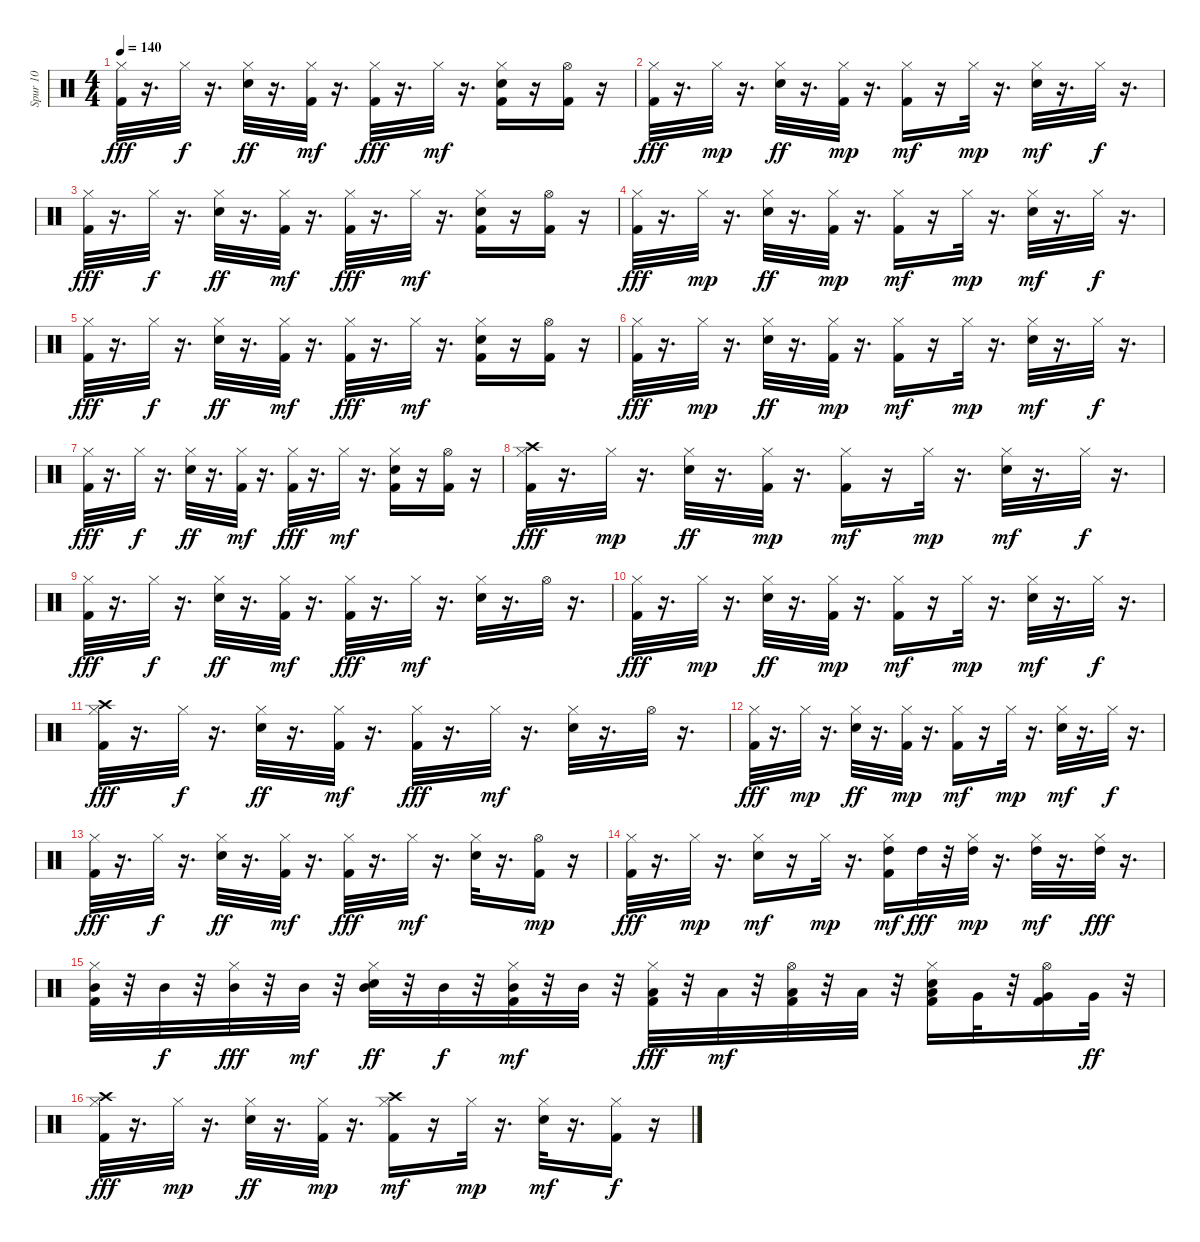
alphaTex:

\track ("Spur 10" "Spur 10") {instrument percussion}
\staff {score}
\articulation defaults
\ts (4 4)
\tempo 140
\clef neutral
\ks c
("Hi-Hat (closed)" "Kick (hit) 2").32{dy fff} r.16{d} "Hi-Hat (closed)".32{dy f} r.16{d} ("Hi-Hat (closed)" "Snare (hit) 2").32{dy ff} r.16{d} ("Kick (hit) 2" "Hi-Hat (closed)").32{dy mf} r.16{d} ("Hi-Hat (closed)" "Kick (hit) 2").32{dy fff} r.16{d} "Hi-Hat (closed)".32{dy mf} r.16{d} ("Kick (hit) 2" "Snare (hit) 2" "Hi-Hat (closed)").16 r.16 ("Kick (hit) 2" "Hi-Hat (open)").16 r.16 |
("Hi-Hat (closed)" "Kick (hit) 2").32{dy fff} r.16{d} "Hi-Hat (closed)".32{dy mp} r.16{d} ("Hi-Hat (closed)" "Snare (hit) 2").32{dy ff} r.16{d} ("Kick (hit) 2" "Hi-Hat (closed)").32{dy mp} r.16{d} ("Kick (hit) 2" "Hi-Hat (closed)").16{dy mf} r.16 "Hi-Hat (closed)".32{dy mp} r.16{d} ("Snare (hit) 2" "Hi-Hat (closed)").32{dy mf} r.16{d} "Hi-Hat (closed)".32{dy f} r.16{d} |
("Hi-Hat (closed)" "Kick (hit) 2").32{dy fff} r.16{d} "Hi-Hat (closed)".32{dy f} r.16{d} ("Hi-Hat (closed)" "Snare (hit) 2").32{dy ff} r.16{d} ("Kick (hit) 2" "Hi-Hat (closed)").32{dy mf} r.16{d} ("Hi-Hat (closed)" "Kick (hit) 2").32{dy fff} r.16{d} "Hi-Hat (closed)".32{dy mf} r.16{d} ("Kick (hit) 2" "Snare (hit) 2" "Hi-Hat (closed)").16 r.16 ("Kick (hit) 2" "Hi-Hat (open)").16 r.16 |
("Hi-Hat (closed)" "Kick (hit) 2").32{dy fff} r.16{d} "Hi-Hat (closed)".32{dy mp} r.16{d} ("Hi-Hat (closed)" "Snare (hit) 2").32{dy ff} r.16{d} ("Kick (hit) 2" "Hi-Hat (closed)").32{dy mp} r.16{d} ("Kick (hit) 2" "Hi-Hat (closed)").16{dy mf} r.16 "Hi-Hat (closed)".32{dy mp} r.16{d} ("Snare (hit) 2" "Hi-Hat (closed)").32{dy mf} r.16{d} "Hi-Hat (closed)".32{dy f} r.16{d} |
("Hi-Hat (closed)" "Kick (hit) 2").32{dy fff} r.16{d} "Hi-Hat (closed)".32{dy f} r.16{d} ("Hi-Hat (closed)" "Snare (hit) 2").32{dy ff} r.16{d} ("Kick (hit) 2" "Hi-Hat (closed)").32{dy mf} r.16{d} ("Hi-Hat (closed)" "Kick (hit) 2").32{dy fff} r.16{d} "Hi-Hat (closed)".32{dy mf} r.16{d} ("Kick (hit) 2" "Snare (hit) 2" "Hi-Hat (closed)").16 r.16 ("Kick (hit) 2" "Hi-Hat (open)").16 r.16 |
("Hi-Hat (closed)" "Kick (hit) 2").32{dy fff} r.16{d} "Hi-Hat (closed)".32{dy mp} r.16{d} ("Hi-Hat (closed)" "Snare (hit) 2").32{dy ff} r.16{d} ("Kick (hit) 2" "Hi-Hat (closed)").32{dy mp} r.16{d} ("Kick (hit) 2" "Hi-Hat (closed)").16{dy mf} r.16 "Hi-Hat (closed)".32{dy mp} r.16{d} ("Snare (hit) 2" "Hi-Hat (closed)").32{dy mf} r.16{d} "Hi-Hat (closed)".32{dy f} r.16{d} |
("Hi-Hat (closed)" "Kick (hit) 2").32{dy fff} r.16{d} "Hi-Hat (closed)".32{dy f} r.16{d} ("Hi-Hat (closed)" "Snare (hit) 2").32{dy ff} r.16{d} ("Kick (hit) 2" "Hi-Hat (closed)").32{dy mf} r.16{d} ("Hi-Hat (closed)" "Kick (hit) 2").32{dy fff} r.16{d} "Hi-Hat (closed)".32{dy mf} r.16{d} ("Kick (hit) 2" "Snare (hit) 2" "Hi-Hat (closed)").16 r.16 ("Kick (hit) 2" "Hi-Hat (open)").16 r.16 |
("Crash high (hit)" "Hi-Hat (closed)" "Kick (hit) 2").32{dy fff} r.16{d} "Hi-Hat (closed)".32{dy mp} r.16{d} ("Hi-Hat (closed)" "Snare (hit) 2").32{dy ff} r.16{d} ("Kick (hit) 2" "Hi-Hat (closed)").32{dy mp} r.16{d} ("Kick (hit) 2" "Hi-Hat (closed)").16{dy mf} r.16 "Hi-Hat (closed)".32{dy mp} r.16{d} ("Snare (hit) 2" "Hi-Hat (closed)").32{dy mf} r.16{d} "Hi-Hat (closed)".32{dy f} r.16{d} |
("Hi-Hat (closed)" "Kick (hit) 2").32{dy fff} r.16{d} "Hi-Hat (closed)".32{dy f} r.16{d} ("Hi-Hat (closed)" "Snare (hit) 2").32{dy ff} r.16{d} ("Kick (hit) 2" "Hi-Hat (closed)").32{dy mf} r.16{d} ("Hi-Hat (closed)" "Kick (hit) 2").32{dy fff} r.16{d} "Hi-Hat (closed)".32{dy mf} r.16{d} ("Snare (hit) 2" "Hi-Hat (closed)").32 r.16{d} "Hi-Hat (open)".32 r.16{d} |
("Hi-Hat (closed)" "Kick (hit) 2").32{dy fff} r.16{d} "Hi-Hat (closed)".32{dy mp} r.16{d} ("Hi-Hat (closed)" "Snare (hit) 2").32{dy ff} r.16{d} ("Kick (hit) 2" "Hi-Hat (closed)").32{dy mp} r.16{d} ("Kick (hit) 2" "Hi-Hat (closed)").16{dy mf} r.16 "Hi-Hat (closed)".32{dy mp} r.16{d} ("Snare (hit) 2" "Hi-Hat (closed)").32{dy mf} r.16{d} "Hi-Hat (closed)".32{dy f} r.16{d} |
("Crash high (hit)" "Hi-Hat (closed)" "Kick (hit) 2").32{dy fff} r.16{d} "Hi-Hat (closed)".32{dy f} r.16{d} ("Hi-Hat (closed)" "Snare (hit) 2").32{dy ff} r.16{d} ("Kick (hit) 2" "Hi-Hat (closed)").32{dy mf} r.16{d} ("Hi-Hat (closed)" "Kick (hit) 2").32{dy fff} r.16{d} "Hi-Hat (closed)".32{dy mf} r.16{d} ("Snare (hit) 2" "Hi-Hat (closed)").32 r.16{d} "Hi-Hat (open)".32 r.16{d} |
("Hi-Hat (closed)" "Kick (hit) 2").32{dy fff} r.16{d} "Hi-Hat (closed)".32{dy mp} r.16{d} ("Hi-Hat (closed)" "Snare (hit) 2").32{dy ff} r.16{d} ("Kick (hit) 2" "Hi-Hat (closed)").32{dy mp} r.16{d} ("Kick (hit) 2" "Hi-Hat (closed)").16{dy mf} r.16 "Hi-Hat (closed)".32{dy mp} r.16{d} ("Snare (hit) 2" "Hi-Hat (closed)").32{dy mf} r.16{d} "Hi-Hat (closed)".32{dy f} r.16{d} |
("Hi-Hat (closed)" "Kick (hit) 2").32{dy fff} r.16{d} "Hi-Hat (closed)".32{dy f} r.16{d} ("Hi-Hat (closed)" "Snare (hit) 2").32{dy ff} r.16{d} ("Kick (hit) 2" "Hi-Hat (closed)").32{dy mf} r.16{d} ("Hi-Hat (closed)" "Kick (hit) 2").32{dy fff} r.16{d} "Hi-Hat (closed)".32{dy mf} r.16{d} ("Snare (hit) 2" "Hi-Hat (closed)").32 r.16{d} ("Hi-Hat (open)" "Kick (hit) 2").16{dy mp} r.16 |
("Hi-Hat (closed)" "Kick (hit) 2").32{dy fff} r.16{d} "Hi-Hat (closed)".32{dy mp} r.16{d} ("Snare (hit) 2" "Hi-Hat (closed)").16{dy mf} r.16 "Hi-Hat (closed)".32{dy mp} r.16{d} ("High Tom (hit)" "Kick (hit) 2" "Hi-Hat (closed)").16{dy mf} "High Tom (hit)".32{dy fff} r.32 ("High Tom (hit)" "Hi-Hat (closed)").32{dy mp} r.16{d} ("High Tom (hit)" "Hi-Hat (closed)").32{dy mf} r.16{d} ("High Tom (hit)" "Hi-Hat (closed)").32{dy fff} r.16{d} |
("Mid Tom (hit)" "Hi-Hat (closed)" "Kick (hit) 2").32 r.32 "Mid Tom (hit)".32{dy f} r.32 ("Mid Tom (hit)" "Hi-Hat (closed)").32{dy fff} r.32 "Mid Tom (hit)".32{dy mf} r.32 ("Mid Tom (hit)" "Hi-Hat (closed)" "Snare (hit) 2").32{dy ff} r.32 "Mid Tom (hit)".32{dy f} r.32 ("Mid Tom (hit)" "Kick (hit) 2" "Hi-Hat (closed)").32{dy mf} r.32 "Mid Tom (hit)".32 r.32 ("Low Tom (hit)" "Hi-Hat (closed)" "Kick (hit) 2").32{dy fff} r.32 "Low Tom (hit)".32{dy mf} r.32 ("Low Tom (hit)" "Kick (hit) 2" "Hi-Hat (open)").32 r.32 "Low Tom (hit)".32 r.32 ("Low Tom (hit)" "Kick (hit) 2" "Snare (hit) 2" "Hi-Hat (closed)").16 "Very Low Tom (hit)".32 r.32 ("Very Low Tom (hit)" "Kick (hit) 2" "Hi-Hat (open)").16 "Very Low Tom (hit)".32{dy ff} r.32 |
("Crash high (hit)" "Hi-Hat (closed)" "Kick (hit) 2").32{dy fff} r.16{d} "Hi-Hat (closed)".32{dy mp} r.16{d} ("Hi-Hat (closed)" "Snare (hit) 2").32{dy ff} r.16{d} ("Kick (hit) 2" "Hi-Hat (closed)").32{dy mp} r.16{d} ("Crash high (hit)" "Kick (hit) 2" "Hi-Hat (closed)").16{dy mf} r.16 "Hi-Hat (closed)".32{dy mp} r.16{d} ("Snare (hit) 2" "Hi-Hat (closed)").32{dy mf} r.16{d} ("Kick (hit) 2" "Hi-Hat (closed)").16{dy f} r.16
